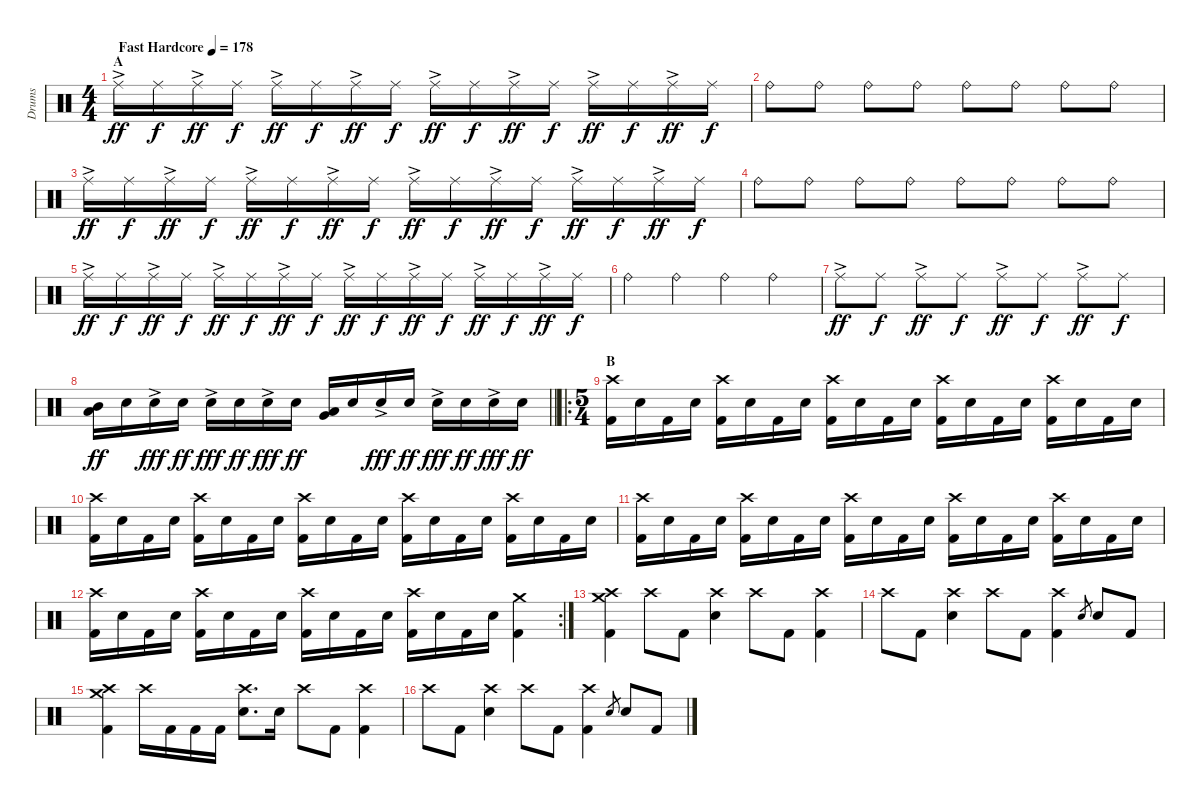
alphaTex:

\track ("Drums" "Drums") {instrument percussion}
\staff {score}
\articulation defaults
\ts (4 4)
\section ("" "A")
\tempo (178 "Fast Hardcore")
\clef neutral
\ks c "Ride (middle)"{ac}.16{dy ff volume 0} "Ride (middle)".16{dy f volume 14} "Ride (middle)"{ac}.16{dy ff} "Ride (middle)".16{dy f} "Ride (middle)"{ac}.16{dy ff} "Ride (middle)".16{dy f} "Ride (middle)"{ac}.16{dy ff} "Ride (middle)".16{dy f} "Ride (middle)"{ac}.16{dy ff} "Ride (middle)".16{dy f} "Ride (middle)"{ac}.16{dy ff} "Ride (middle)".16{dy f} "Ride (middle)"{ac}.16{dy ff} "Ride (middle)".16{dy f} "Ride (middle)"{ac}.16{dy ff} "Ride (middle)".16{dy f}
|
"Ride (bell)".8 "Ride (bell)".8 "Ride (bell)".8 "Ride (bell)".8 "Ride (bell)".8 "Ride (bell)".8 "Ride (bell)".8 "Ride (bell)".8 |
"Ride (middle)"{ac}.16{dy ff} "Ride (middle)".16{dy f} "Ride (middle)"{ac}.16{dy ff} "Ride (middle)".16{dy f} "Ride (middle)"{ac}.16{dy ff} "Ride (middle)".16{dy f} "Ride (middle)"{ac}.16{dy ff} "Ride (middle)".16{dy f} "Ride (middle)"{ac}.16{dy ff} "Ride (middle)".16{dy f} "Ride (middle)"{ac}.16{dy ff} "Ride (middle)".16{dy f} "Ride (middle)"{ac}.16{dy ff} "Ride (middle)".16{dy f} "Ride (middle)"{ac}.16{dy ff} "Ride (middle)".16{dy f} |
"Ride (bell)".8 "Ride (bell)".8 "Ride (bell)".8 "Ride (bell)".8 "Ride (bell)".8 "Ride (bell)".8 "Ride (bell)".8 "Ride (bell)".8 |
"Ride (middle)"{ac}.16{dy ff} "Ride (middle)".16{dy f} "Ride (middle)"{ac}.16{dy ff} "Ride (middle)".16{dy f} "Ride (middle)"{ac}.16{dy ff} "Ride (middle)".16{dy f} "Ride (middle)"{ac}.16{dy ff} "Ride (middle)".16{dy f} "Ride (middle)"{ac}.16{dy ff} "Ride (middle)".16{dy f} "Ride (middle)"{ac}.16{dy ff} "Ride (middle)".16{dy f} "Ride (middle)"{ac}.16{dy ff} "Ride (middle)".16{dy f} "Ride (middle)"{ac}.16{dy ff} "Ride (middle)".16{dy f} |
"Ride (bell)".4 "Ride (bell)".4 "Ride (bell)".4 "Ride (bell)".4 |
"Ride (middle)"{ac}.8{dy ff} "Ride (middle)".8{dy f} "Ride (middle)"{ac}.8{dy ff} "Ride (middle)".8{dy f} "Ride (middle)"{ac}.8{dy ff} "Ride (middle)".8{dy f} "Ride (middle)"{ac}.8{dy ff} "Ride (middle)".8{dy f} |
\barLineRight lightlight
("Mid Tom (hit)" "Low Tom (hit)").16{dy ff volume 14} "Electric Snare (hit)".16 "Electric Snare (hit)"{ac}.16{dy fff} "Electric Snare (hit)".16{dy ff} "Electric Snare (hit)"{ac}.16{dy fff} "Electric Snare (hit)".16{dy ff} "Electric Snare (hit)"{ac}.16{dy fff} "Electric Snare (hit)".16{dy ff} ("Low Tom (hit)" "Very Low Tom (hit)").16 "Electric Snare (hit)".16 "Electric Snare (hit)"{ac}.16{dy fff} "Electric Snare (hit)".16{dy ff} "Electric Snare (hit)"{ac}.16{dy fff} "Electric Snare (hit)".16{dy ff} "Electric Snare (hit)"{ac}.16{dy fff} "Electric Snare (hit)".16{dy ff} |
\ro
\ts (5 4)
\section ("" "B")
("Crash high (hit)" "Kick (hit) 2").16{volume 13} "Electric Snare (hit)".16 "Kick (hit) 2".16 "Electric Snare (hit)".16 ("Crash high (hit)" "Kick (hit) 2").16 "Electric Snare (hit)".16 "Kick (hit) 2".16 "Electric Snare (hit)".16 ("Crash high (hit)" "Kick (hit) 2").16 "Electric Snare (hit)".16 "Kick (hit) 2".16 "Electric Snare (hit)".16 ("Crash high (hit)" "Kick (hit) 2").16 "Electric Snare (hit)".16 "Kick (hit) 2".16 "Electric Snare (hit)".16 ("Crash high (hit)" "Kick (hit) 2").16 "Electric Snare (hit)".16 "Kick (hit) 2".16 "Electric Snare (hit)".16 |
("Crash high (hit)" "Kick (hit) 2").16 "Electric Snare (hit)".16 "Kick (hit) 2".16 "Electric Snare (hit)".16 ("Crash high (hit)" "Kick (hit) 2").16 "Electric Snare (hit)".16 "Kick (hit) 2".16 "Electric Snare (hit)".16 ("Crash high (hit)" "Kick (hit) 2").16 "Electric Snare (hit)".16 "Kick (hit) 2".16 "Electric Snare (hit)".16 ("Crash high (hit)" "Kick (hit) 2").16 "Electric Snare (hit)".16 "Kick (hit) 2".16 "Electric Snare (hit)".16 ("Crash high (hit)" "Kick (hit) 2").16 "Electric Snare (hit)".16 "Kick (hit) 2".16 "Electric Snare (hit)".16 |
("Crash high (hit)" "Kick (hit) 2").16 "Electric Snare (hit)".16 "Kick (hit) 2".16 "Electric Snare (hit)".16 ("Crash high (hit)" "Kick (hit) 2").16 "Electric Snare (hit)".16 "Kick (hit) 2".16 "Electric Snare (hit)".16 ("Crash high (hit)" "Kick (hit) 2").16 "Electric Snare (hit)".16 "Kick (hit) 2".16 "Electric Snare (hit)".16 ("Crash high (hit)" "Kick (hit) 2").16 "Electric Snare (hit)".16 "Kick (hit) 2".16 "Electric Snare (hit)".16 ("Crash high (hit)" "Kick (hit) 2").16 "Electric Snare (hit)".16 "Kick (hit) 2".16 "Electric Snare (hit)".16 |
\rc 2
("Crash high (hit)" "Kick (hit) 2").16 "Electric Snare (hit)".16 "Kick (hit) 2".16 "Electric Snare (hit)".16 ("Crash high (hit)" "Kick (hit) 2").16 "Electric Snare (hit)".16 "Kick (hit) 2".16 "Electric Snare (hit)".16 ("Crash high (hit)" "Kick (hit) 2").16 "Electric Snare (hit)".16 "Kick (hit) 2".16 "Electric Snare (hit)".16 ("Crash high (hit)" "Kick (hit) 2").16 "Electric Snare (hit)".16 "Kick (hit) 2".16 "Electric Snare (hit)".16 ("Crash medium (hit)" "Kick (hit) 2").4 |
("Crash medium (hit)" "Crash high (hit)" "Kick (hit) 2").4 "Crash high (hit)".8 "Kick (hit) 2".8 ("Crash high (hit)" "Electric Snare (hit)").4 "Crash high (hit)".8 "Kick (hit) 2".8 ("Crash high (hit)" "Kick (hit) 2").4 |
"Crash high (hit)".8 "Kick (hit) 2".8 ("Crash high (hit)" "Electric Snare (hit)").4 "Crash high (hit)".8 "Kick (hit) 2".8 ("Crash high (hit)" "Kick (hit) 2").4 "Electric Snare (hit)".8{gr} "Electric Snare (hit)".8 "Kick (hit) 2".8 |
("Crash medium (hit)" "Crash high (hit)" "Kick (hit) 2").4 "Crash high (hit)".16 "Kick (hit) 2".16 "Kick (hit) 2".16 "Kick (hit) 2".16 ("Crash high (hit)" "Electric Snare (hit)").8{d} "Electric Snare (hit)".16 "Crash high (hit)".8 "Kick (hit) 2".8 ("Crash high (hit)" "Kick (hit) 2").4 |
"Crash high (hit)".8 "Kick (hit) 2".8 ("Crash high (hit)" "Electric Snare (hit)").4 "Crash high (hit)".8 "Kick (hit) 2".8 ("Crash high (hit)" "Kick (hit) 2").4 "Electric Snare (hit)".8{gr} "Electric Snare (hit)".8 "Kick (hit) 2".8
